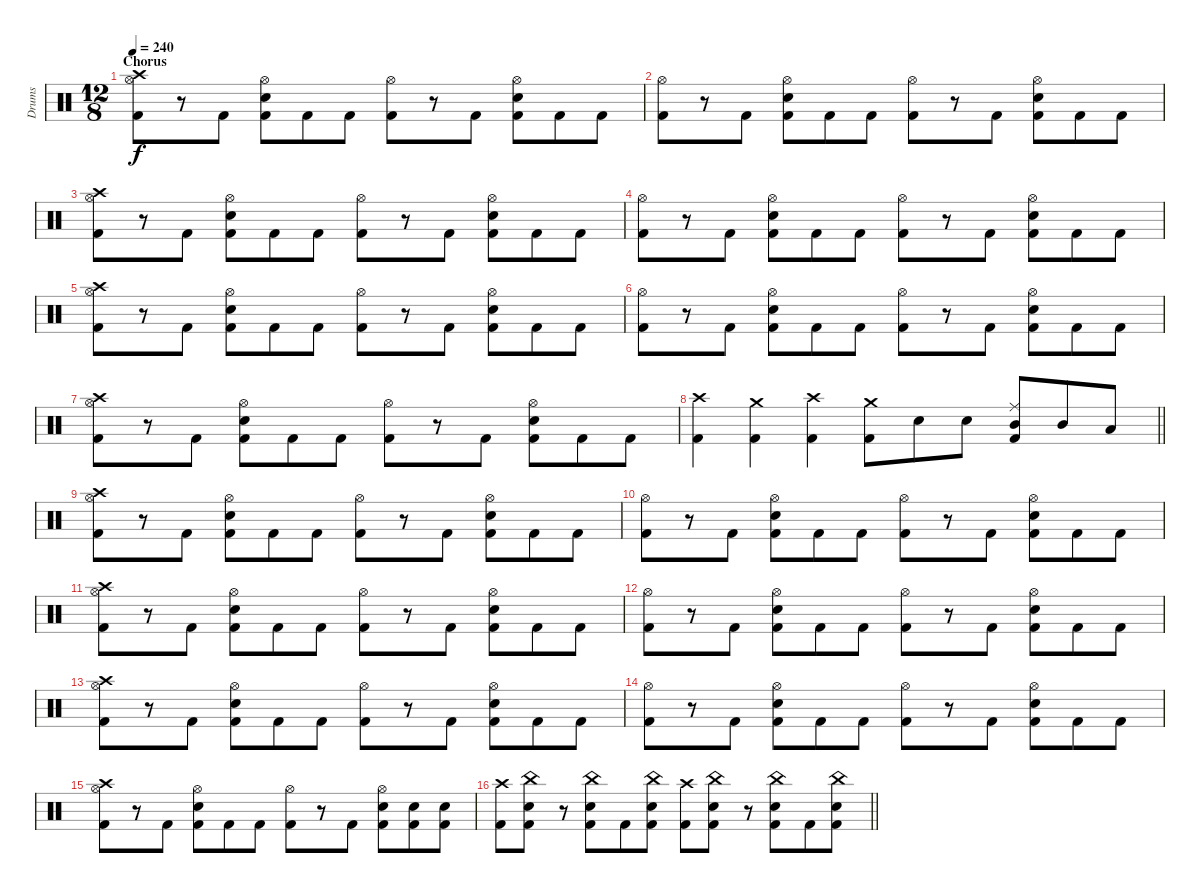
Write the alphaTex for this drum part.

\track ("Drums" "Drums") {instrument percussion}
\staff {score}
\articulation defaults
\ts (12 8)
\section ("" "Chorus")
\tempo 240
\clef neutral
\ks c
("Crash high (hit)" "Hi-Hat (open)" "Kick (hit) 2").8{dy f} r.8 "Kick (hit) 2".8 ("Hi-Hat (open)" "Snare (hit) 2" "Kick (hit) 2").8 "Kick (hit) 2".8 "Kick (hit) 2".8 ("Hi-Hat (open)" "Kick (hit) 2").8 r.8 "Kick (hit) 2".8 ("Hi-Hat (open)" "Snare (hit) 2" "Kick (hit) 2").8 "Kick (hit) 2".8 "Kick (hit) 2".8 |
("Hi-Hat (open)" "Kick (hit) 2").8 r.8 "Kick (hit) 2".8 ("Hi-Hat (open)" "Snare (hit) 2" "Kick (hit) 2").8 "Kick (hit) 2".8 "Kick (hit) 2".8 ("Hi-Hat (open)" "Kick (hit) 2").8 r.8 "Kick (hit) 2".8 ("Hi-Hat (open)" "Snare (hit) 2" "Kick (hit) 2").8 "Kick (hit) 2".8 "Kick (hit) 2".8 |
("Crash high (hit)" "Hi-Hat (open)" "Kick (hit) 2").8 r.8 "Kick (hit) 2".8 ("Hi-Hat (open)" "Snare (hit) 2" "Kick (hit) 2").8 "Kick (hit) 2".8 "Kick (hit) 2".8 ("Hi-Hat (open)" "Kick (hit) 2").8 r.8 "Kick (hit) 2".8 ("Hi-Hat (open)" "Snare (hit) 2" "Kick (hit) 2").8 "Kick (hit) 2".8 "Kick (hit) 2".8 |
("Hi-Hat (open)" "Kick (hit) 2").8 r.8 "Kick (hit) 2".8 ("Hi-Hat (open)" "Snare (hit) 2" "Kick (hit) 2").8 "Kick (hit) 2".8 "Kick (hit) 2".8 ("Hi-Hat (open)" "Kick (hit) 2").8 r.8 "Kick (hit) 2".8 ("Hi-Hat (open)" "Snare (hit) 2" "Kick (hit) 2").8 "Kick (hit) 2".8 "Kick (hit) 2".8 |
("Crash high (hit)" "Hi-Hat (open)" "Kick (hit) 2").8 r.8 "Kick (hit) 2".8 ("Hi-Hat (open)" "Snare (hit) 2" "Kick (hit) 2").8 "Kick (hit) 2".8 "Kick (hit) 2".8 ("Hi-Hat (open)" "Kick (hit) 2").8 r.8 "Kick (hit) 2".8 ("Hi-Hat (open)" "Snare (hit) 2" "Kick (hit) 2").8 "Kick (hit) 2".8 "Kick (hit) 2".8 |
("Hi-Hat (open)" "Kick (hit) 2").8 r.8 "Kick (hit) 2".8 ("Hi-Hat (open)" "Snare (hit) 2" "Kick (hit) 2").8 "Kick (hit) 2".8 "Kick (hit) 2".8 ("Hi-Hat (open)" "Kick (hit) 2").8 r.8 "Kick (hit) 2".8 ("Hi-Hat (open)" "Snare (hit) 2" "Kick (hit) 2").8 "Kick (hit) 2".8 "Kick (hit) 2".8 |
("Crash high (hit)" "Hi-Hat (open)" "Kick (hit) 2").8 r.8 "Kick (hit) 2".8 ("Hi-Hat (open)" "Snare (hit) 2" "Kick (hit) 2").8 "Kick (hit) 2".8 "Kick (hit) 2".8 ("Hi-Hat (open)" "Kick (hit) 2").8 r.8 "Kick (hit) 2".8 ("Hi-Hat (open)" "Snare (hit) 2" "Kick (hit) 2").8 "Kick (hit) 2".8 "Kick (hit) 2".8 |
\barLineRight lightlight
("Crash high (hit)" "Kick (hit) 2").4 ("Crash medium (hit)" "Kick (hit) 2").4 ("Crash high (hit)" "Kick (hit) 2").4 ("Crash medium (hit)" "Kick (hit) 2").8 "Snare (hit) 2".8 "Snare (hit) 2".8 ("Ride (middle)" "Mid Tom (hit)" "Kick (hit) 2").8 "Mid Tom (hit)".8 "Low Tom (hit)".8 |
("Crash high (hit)" "Hi-Hat (open)" "Kick (hit) 2").8 r.8 "Kick (hit) 2".8 ("Hi-Hat (open)" "Snare (hit) 2" "Kick (hit) 2").8 "Kick (hit) 2".8 "Kick (hit) 2".8 ("Hi-Hat (open)" "Kick (hit) 2").8 r.8 "Kick (hit) 2".8 ("Hi-Hat (open)" "Snare (hit) 2" "Kick (hit) 2").8 "Kick (hit) 2".8 "Kick (hit) 2".8 |
("Hi-Hat (open)" "Kick (hit) 2").8 r.8 "Kick (hit) 2".8 ("Hi-Hat (open)" "Snare (hit) 2" "Kick (hit) 2").8 "Kick (hit) 2".8 "Kick (hit) 2".8 ("Hi-Hat (open)" "Kick (hit) 2").8 r.8 "Kick (hit) 2".8 ("Hi-Hat (open)" "Snare (hit) 2" "Kick (hit) 2").8 "Kick (hit) 2".8 "Kick (hit) 2".8 |
("Crash high (hit)" "Hi-Hat (open)" "Kick (hit) 2").8 r.8 "Kick (hit) 2".8 ("Hi-Hat (open)" "Snare (hit) 2" "Kick (hit) 2").8 "Kick (hit) 2".8 "Kick (hit) 2".8 ("Hi-Hat (open)" "Kick (hit) 2").8 r.8 "Kick (hit) 2".8 ("Hi-Hat (open)" "Snare (hit) 2" "Kick (hit) 2").8 "Kick (hit) 2".8 "Kick (hit) 2".8 |
("Hi-Hat (open)" "Kick (hit) 2").8 r.8 "Kick (hit) 2".8 ("Hi-Hat (open)" "Snare (hit) 2" "Kick (hit) 2").8 "Kick (hit) 2".8 "Kick (hit) 2".8 ("Hi-Hat (open)" "Kick (hit) 2").8 r.8 "Kick (hit) 2".8 ("Hi-Hat (open)" "Snare (hit) 2" "Kick (hit) 2").8 "Kick (hit) 2".8 "Kick (hit) 2".8 |
("Crash high (hit)" "Hi-Hat (open)" "Kick (hit) 2").8 r.8 "Kick (hit) 2".8 ("Hi-Hat (open)" "Snare (hit) 2" "Kick (hit) 2").8 "Kick (hit) 2".8 "Kick (hit) 2".8 ("Hi-Hat (open)" "Kick (hit) 2").8 r.8 "Kick (hit) 2".8 ("Hi-Hat (open)" "Snare (hit) 2" "Kick (hit) 2").8 "Kick (hit) 2".8 "Kick (hit) 2".8 |
("Hi-Hat (open)" "Kick (hit) 2").8 r.8 "Kick (hit) 2".8 ("Hi-Hat (open)" "Snare (hit) 2" "Kick (hit) 2").8 "Kick (hit) 2".8 "Kick (hit) 2".8 ("Hi-Hat (open)" "Kick (hit) 2").8 r.8 "Kick (hit) 2".8 ("Hi-Hat (open)" "Snare (hit) 2" "Kick (hit) 2").8 "Kick (hit) 2".8 "Kick (hit) 2".8 |
("Crash high (hit)" "Hi-Hat (open)" "Kick (hit) 2").8 r.8 "Kick (hit) 2".8 ("Hi-Hat (open)" "Snare (hit) 2" "Kick (hit) 2").8 "Kick (hit) 2".8 "Kick (hit) 2".8 ("Hi-Hat (open)" "Kick (hit) 2").8 r.8 "Kick (hit) 2".8 ("Hi-Hat (open)" "Snare (hit) 2" "Kick (hit) 2").8 ("Snare (hit) 2" "Kick (hit) 2").8 ("Snare (hit) 2" "Kick (hit) 2").8 |
\barLineRight lightlight
("Crash high (hit)" "Kick (hit) 2").8 ("China (hit)" "Snare (hit) 2" "Kick (hit) 2").8 r.8 ("China (hit)" "Snare (hit) 2" "Kick (hit) 2").8 "Kick (hit) 2".8 ("China (hit)" "Snare (hit) 2" "Kick (hit) 2").8 ("Crash high (hit)" "Kick (hit) 2").8 ("China (hit)" "Snare (hit) 2" "Kick (hit) 2").8 r.8 ("China (hit)" "Snare (hit) 2" "Kick (hit) 2").8 "Kick (hit) 2".8 ("China (hit)" "Snare (hit) 2" "Kick (hit) 2").8
